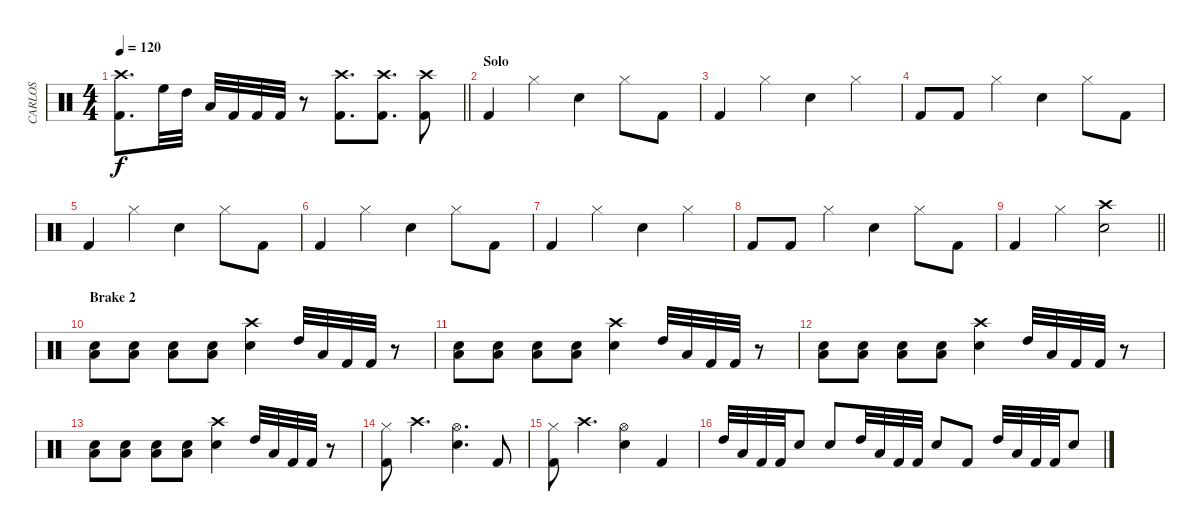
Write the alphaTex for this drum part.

\track ("CARLOS" "CARLOS") {instrument percussion}
\staff {score}
\articulation defaults
\ts (4 4)
\tempo 120
\clef neutral
\barLineRight lightlight
\ks c
("Kick (hit) 2" "Crash high (hit)").8{d dy f} "High Floor Tom (hit)".32 "High Tom (hit)".32 "Low Tom (hit)".32 "Kick (hit) 2".32 "Kick (hit) 2".32 "Kick (hit) 2".32 r.8 ("Kick (hit) 2" "Crash high (hit)").8{d} ("Kick (hit) 2" "Crash high (hit)").8{d} ("Kick (hit) 2" "Crash high (hit)").8 |
\section ("" "Solo")
"Kick (hit) 2".4 "Hi-Hat (closed)".4 "Electric Snare (hit)".4 "Hi-Hat (closed)".8 "Kick (hit) 2".8 |
"Kick (hit) 2".4 "Hi-Hat (closed)".4 "Electric Snare (hit)".4 "Hi-Hat (closed)".4 |
"Kick (hit) 2".8 "Kick (hit) 2".8 "Hi-Hat (closed)".4 "Electric Snare (hit)".4 "Hi-Hat (closed)".8 "Kick (hit) 2".8 |
"Kick (hit) 2".4 "Hi-Hat (closed)".4 "Electric Snare (hit)".4 "Hi-Hat (closed)".8 "Kick (hit) 2".8 |
"Kick (hit) 2".4 "Hi-Hat (closed)".4 "Electric Snare (hit)".4 "Hi-Hat (closed)".8 "Kick (hit) 2".8 |
"Kick (hit) 2".4 "Hi-Hat (closed)".4 "Electric Snare (hit)".4 "Hi-Hat (closed)".4 |
"Kick (hit) 2".8 "Kick (hit) 2".8 "Hi-Hat (closed)".4 "Electric Snare (hit)".4 "Hi-Hat (closed)".8 "Kick (hit) 2".8 |
\barLineRight lightlight "Kick (hit) 2".4 "Hi-Hat (closed)".4
("Electric Snare (hit)" "Crash high (hit)").2 |
\section ("" "Brake 2")
("Low Tom (hit)" "Electric Snare (hit)").8 ("Low Tom (hit)" "Electric Snare (hit)").8 ("Low Tom (hit)" "Electric Snare (hit)").8 ("Low Tom (hit)" "Electric Snare (hit)").8 ("Crash high (hit)" "Electric Snare (hit)").4 "High Tom (hit)".32 "Low Tom (hit)".32 "Kick (hit) 2".32 "Kick (hit) 2".32 r.8 |
("Low Tom (hit)" "Electric Snare (hit)").8 ("Low Tom (hit)" "Electric Snare (hit)").8 ("Low Tom (hit)" "Electric Snare (hit)").8 ("Low Tom (hit)" "Electric Snare (hit)").8 ("Crash high (hit)" "Electric Snare (hit)").4 "High Tom (hit)".32 "Low Tom (hit)".32 "Kick (hit) 2".32 "Kick (hit) 2".32 r.8 |
("Low Tom (hit)" "Electric Snare (hit)").8 ("Low Tom (hit)" "Electric Snare (hit)").8 ("Low Tom (hit)" "Electric Snare (hit)").8 ("Low Tom (hit)" "Electric Snare (hit)").8 ("Crash high (hit)" "Electric Snare (hit)").4 "High Tom (hit)".32 "Low Tom (hit)".32 "Kick (hit) 2".32 "Kick (hit) 2".32 r.8 |
("Low Tom (hit)" "Electric Snare (hit)").8 ("Low Tom (hit)" "Electric Snare (hit)").8 ("Low Tom (hit)" "Electric Snare (hit)").8 ("Low Tom (hit)" "Electric Snare (hit)").8 ("Crash high (hit)" "Electric Snare (hit)").4 "High Tom (hit)".32 "Low Tom (hit)".32 "Kick (hit) 2".32 "Kick (hit) 2".32 r.8 |
("Hi-Hat (closed)" "Kick (hit) 2").8 "Crash high (hit)".4{d} ("Hi-Hat (open)" "Electric Snare (hit)").4{d} "Kick (hit) 2".8 |
("Hi-Hat (closed)" "Kick (hit) 2").8 "Crash high (hit)".4{d} ("Hi-Hat (open)" "Electric Snare (hit)").4 "Kick (hit) 2".4 |
"High Tom (hit)".32 "Low Tom (hit)".32 "Kick (hit) 2".32 "Kick (hit) 2".32 "Electric Snare (hit)".8 "Electric Snare (hit)".8 "High Tom (hit)".32 "Low Tom (hit)".32 "Kick (hit) 2".32 "Kick (hit) 2".32 "Electric Snare (hit)".8 "Kick (hit) 2".8 "High Tom (hit)".32 "Low Tom (hit)".32 "Kick (hit) 2".32 "Kick (hit) 2".32 "Electric Snare (hit)".8
